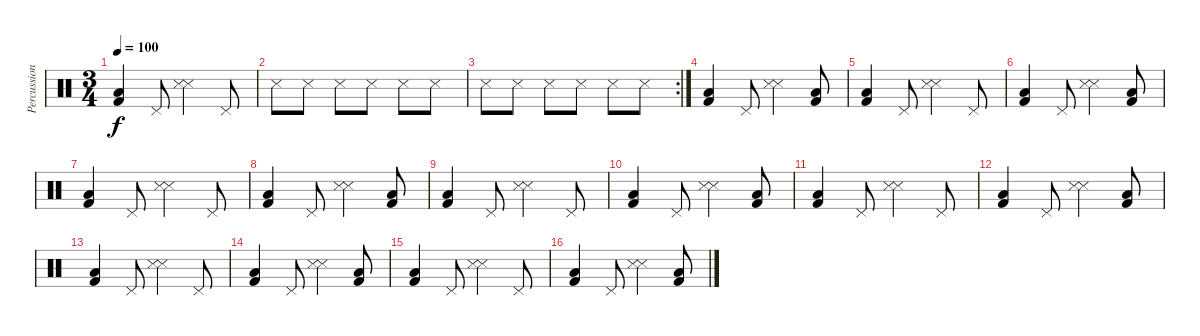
\track ("Percussions" "Percussion") {instrument percussion}
\staff {score}
\articulation defaults
\ts (3 4)
\tempo 100
\clef neutral
\ks c
("Kick (hit) 2" "Low Floor Tom (hit)").4{dy f} "Pedal Hi-Hat (hit)".8 ("Snare (side stick) 3" "Snare (side stick) 3").4 "Pedal Hi-Hat (hit)".8 |
"Snare (side stick) 3".8 "Snare (side stick) 3".8 "Snare (side stick) 3".8 "Snare (side stick) 3".8 "Snare (side stick) 3".8 "Snare (side stick) 3".8 |
\rc 2 "Snare (side stick) 3".8 "Snare (side stick) 3".8 "Snare (side stick) 3".8 "Snare (side stick) 3".8 "Snare (side stick) 3".8 "Snare (side stick) 3".8
|
("Kick (hit) 2" "Low Floor Tom (hit)").4 "Pedal Hi-Hat (hit)".8 ("Snare (side stick) 3" "Snare (side stick) 3").4 ("Kick (hit) 2" "Low Floor Tom (hit)").8 |
("Kick (hit) 2" "Low Floor Tom (hit)").4 "Pedal Hi-Hat (hit)".8 ("Snare (side stick) 3" "Snare (side stick) 3").4 "Pedal Hi-Hat (hit)".8 |
("Kick (hit) 2" "Low Floor Tom (hit)").4 "Pedal Hi-Hat (hit)".8 ("Snare (side stick) 3" "Snare (side stick) 3").4 ("Kick (hit) 2" "Low Floor Tom (hit)").8 |
("Kick (hit) 2" "Low Floor Tom (hit)").4 "Pedal Hi-Hat (hit)".8 ("Snare (side stick) 3" "Snare (side stick) 3").4 "Pedal Hi-Hat (hit)".8 |
("Kick (hit) 2" "Low Floor Tom (hit)").4 "Pedal Hi-Hat (hit)".8 ("Snare (side stick) 3" "Snare (side stick) 3").4 ("Kick (hit) 2" "Low Floor Tom (hit)").8 |
("Kick (hit) 2" "Low Floor Tom (hit)").4 "Pedal Hi-Hat (hit)".8 ("Snare (side stick) 3" "Snare (side stick) 3").4 "Pedal Hi-Hat (hit)".8 |
("Kick (hit) 2" "Low Floor Tom (hit)").4 "Pedal Hi-Hat (hit)".8 ("Snare (side stick) 3" "Snare (side stick) 3").4 ("Kick (hit) 2" "Low Floor Tom (hit)").8 |
("Kick (hit) 2" "Low Floor Tom (hit)").4 "Pedal Hi-Hat (hit)".8 ("Snare (side stick) 3" "Snare (side stick) 3").4 "Pedal Hi-Hat (hit)".8 |
("Kick (hit) 2" "Low Floor Tom (hit)").4 "Pedal Hi-Hat (hit)".8 ("Snare (side stick) 3" "Snare (side stick) 3").4 ("Kick (hit) 2" "Low Floor Tom (hit)").8 |
("Kick (hit) 2" "Low Floor Tom (hit)").4 "Pedal Hi-Hat (hit)".8 ("Snare (side stick) 3" "Snare (side stick) 3").4 "Pedal Hi-Hat (hit)".8 |
("Kick (hit) 2" "Low Floor Tom (hit)").4 "Pedal Hi-Hat (hit)".8 ("Snare (side stick) 3" "Snare (side stick) 3").4 ("Kick (hit) 2" "Low Floor Tom (hit)").8 |
("Kick (hit) 2" "Low Floor Tom (hit)").4 "Pedal Hi-Hat (hit)".8 ("Snare (side stick) 3" "Snare (side stick) 3").4 "Pedal Hi-Hat (hit)".8 |
("Kick (hit) 2" "Low Floor Tom (hit)").4 "Pedal Hi-Hat (hit)".8 ("Snare (side stick) 3" "Snare (side stick) 3").4 ("Kick (hit) 2" "Low Floor Tom (hit)").8
